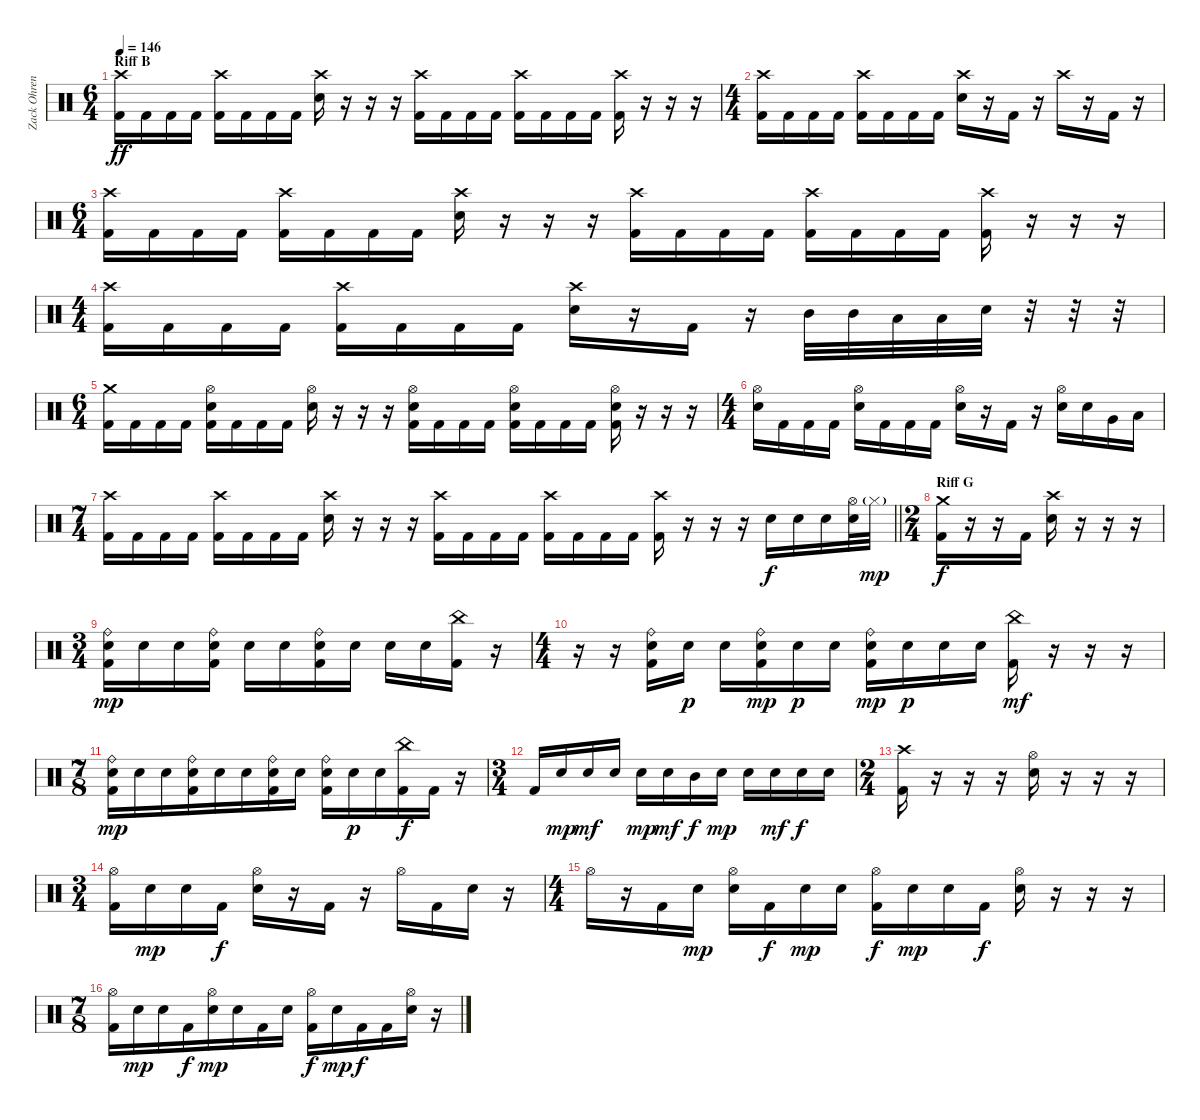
\track ("Zack Ohren" "Zack Ohren") {instrument percussion}
\staff {score}
\articulation defaults
\ts (6 4)
\section ("" "Riff B")
\tempo 146
\clef neutral
\ks c
("Crash high (hit)" "Kick (hit) 2").16{dy ff} "Kick (hit) 2".16 "Kick (hit) 2".16 "Kick (hit) 2".16 ("Crash high (hit)" "Kick (hit) 2").16 "Kick (hit) 2".16 "Kick (hit) 2".16 "Kick (hit) 2".16 ("Crash high (hit)" "Electric Snare (hit)").16 r.16 r.16 r.16 ("Crash high (hit)" "Kick (hit) 2").16 "Kick (hit) 2".16 "Kick (hit) 2".16 "Kick (hit) 2".16 ("Crash high (hit)" "Kick (hit) 2").16 "Kick (hit) 2".16 "Kick (hit) 2".16 "Kick (hit) 2".16 ("Crash high (hit)" "Kick (hit) 2").16 r.16 r.16 r.16 |
\ts (4 4)
("Crash high (hit)" "Kick (hit) 2").16 "Kick (hit) 2".16 "Kick (hit) 2".16 "Kick (hit) 2".16 ("Crash high (hit)" "Kick (hit) 2").16 "Kick (hit) 2".16 "Kick (hit) 2".16 "Kick (hit) 2".16 ("Crash high (hit)" "Electric Snare (hit)").16 r.16 "Kick (hit) 2".16 r.16 "Crash high (hit)".16 r.16 "Kick (hit) 2".16 r.16 |
\ts (6 4)
("Crash high (hit)" "Kick (hit) 2").16 "Kick (hit) 2".16 "Kick (hit) 2".16 "Kick (hit) 2".16 ("Crash high (hit)" "Kick (hit) 2").16 "Kick (hit) 2".16 "Kick (hit) 2".16 "Kick (hit) 2".16 ("Crash high (hit)" "Electric Snare (hit)").16 r.16 r.16 r.16 ("Crash high (hit)" "Kick (hit) 2").16 "Kick (hit) 2".16 "Kick (hit) 2".16 "Kick (hit) 2".16 ("Crash high (hit)" "Kick (hit) 2").16 "Kick (hit) 2".16 "Kick (hit) 2".16 "Kick (hit) 2".16 ("Crash high (hit)" "Kick (hit) 2").16 r.16 r.16 r.16 |
\ts (4 4)
("Crash high (hit)" "Kick (hit) 2").16 "Kick (hit) 2".16 "Kick (hit) 2".16 "Kick (hit) 2".16 ("Crash high (hit)" "Kick (hit) 2").16 "Kick (hit) 2".16 "Kick (hit) 2".16 "Kick (hit) 2".16 ("Crash high (hit)" "Electric Snare (hit)").16 r.16 "Kick (hit) 2".16 r.16 "Mid Tom (hit)".32 "Mid Tom (hit)".32 "Low Tom (hit)".32 "Low Tom (hit)".32 "Electric Snare (hit)".32 r.32 r.32 r.32 |
\ts (6 4)
("Crash medium (hit)" "Kick (hit) 2").16 "Kick (hit) 2".16 "Kick (hit) 2".16 "Kick (hit) 2".16 ("Hi-Hat (open)" "Electric Snare (hit)" "Kick (hit) 2").16 "Kick (hit) 2".16 "Kick (hit) 2".16 "Kick (hit) 2".16 ("Hi-Hat (open)" "Electric Snare (hit)").16 r.16 r.16 r.16 ("Hi-Hat (open)" "Electric Snare (hit)" "Kick (hit) 2").16 "Kick (hit) 2".16 "Kick (hit) 2".16 "Kick (hit) 2".16 ("Hi-Hat (open)" "Electric Snare (hit)" "Kick (hit) 2").16 "Kick (hit) 2".16 "Kick (hit) 2".16 "Kick (hit) 2".16 ("Hi-Hat (open)" "Electric Snare (hit)" "Kick (hit) 2").16 r.16 r.16 r.16 |
\ts (4 4)
("Hi-Hat (open)" "Electric Snare (hit)").16 "Kick (hit) 2".16 "Kick (hit) 2".16 "Kick (hit) 2".16 ("Hi-Hat (open)" "Electric Snare (hit)").16 "Kick (hit) 2".16 "Kick (hit) 2".16 "Kick (hit) 2".16 ("Hi-Hat (open)" "Electric Snare (hit)").16 r.16 "Kick (hit) 2".16 r.16 ("Hi-Hat (open)" "Electric Snare (hit)").16 "Electric Snare (hit)".16 "Very Low Tom (hit)".16 "Low Floor Tom (hit)".16 |
\ts (7 4)
\barLineRight lightlight
("Crash high (hit)" "Kick (hit) 2").16 "Kick (hit) 2".16 "Kick (hit) 2".16 "Kick (hit) 2".16 ("Crash high (hit)" "Kick (hit) 2").16 "Kick (hit) 2".16 "Kick (hit) 2".16 "Kick (hit) 2".16 ("Crash high (hit)" "Electric Snare (hit)").16 r.16 r.16 r.16 ("Crash high (hit)" "Kick (hit) 2").16 "Kick (hit) 2".16 "Kick (hit) 2".16 "Kick (hit) 2".16 ("Crash high (hit)" "Kick (hit) 2").16 "Kick (hit) 2".16 "Kick (hit) 2".16 "Kick (hit) 2".16 ("Crash high (hit)" "Kick (hit) 2").16 r.16 r.16 r.16 "Electric Snare (hit)".16{dy f} "Electric Snare (hit)".16 "Electric Snare (hit)".16 ("Hi-Hat (open)" "Electric Snare (hit)").32 "Hi-Hat (closed)"{g}.32{dy mp} |
\ts (2 4)
\section ("" "Riff G")
("Kick (hit) 2" "Crash medium (hit)").16{dy f} r.16 r.16 "Kick (hit) 2".16 ("Crash high (hit)" "Electric Snare (hit)").16 r.16 r.16 r.16 |
\ts (3 4)
("Kick (hit) 2" "Electric Snare (hit)" "Ride (bell)").16{dy mp} "Electric Snare (hit)".16 "Electric Snare (hit)".16 ("Kick (hit) 2" "Electric Snare (hit)" "Ride (bell)").16 "Electric Snare (hit)".16 "Electric Snare (hit)".16 ("Kick (hit) 2" "Electric Snare (hit)" "Ride (bell)").16 "Electric Snare (hit)".16 "Electric Snare (hit)".16 "Electric Snare (hit)".16 ("China (hit)" "Kick (hit) 2").16 r.16 |
\ts (4 4)
r.16 r.16 ("Kick (hit) 2" "Electric Snare (hit)" "Ride (bell)").16 "Electric Snare (hit)".16{dy p} "Electric Snare (hit)".16 ("Kick (hit) 2" "Electric Snare (hit)" "Ride (bell)").16{dy mp} "Electric Snare (hit)".16{dy p} "Electric Snare (hit)".16 ("Kick (hit) 2" "Electric Snare (hit)" "Ride (bell)").16{dy mp} "Electric Snare (hit)".16{dy p} "Electric Snare (hit)".16 "Electric Snare (hit)".16 ("China (hit)" "Kick (hit) 2").16{dy mf} r.16 r.16 r.16 |
\ts (7 8)
("Kick (hit) 2" "Electric Snare (hit)" "Ride (bell)").16{dy mp} "Electric Snare (hit)".16 "Electric Snare (hit)".16 ("Kick (hit) 2" "Electric Snare (hit)" "Ride (bell)").16 "Electric Snare (hit)".16 "Electric Snare (hit)".16 ("Kick (hit) 2" "Electric Snare (hit)" "Ride (bell)").16 "Electric Snare (hit)".16 ("Kick (hit) 2" "Electric Snare (hit)" "Ride (bell)").16 "Electric Snare (hit)".16{dy p} "Electric Snare (hit)".16 ("Kick (hit) 2" "China (hit)").16{dy f} "Kick (hit) 2".16 r.16 |
\ts (3 4)
"Kick (hit) 2".16 "Electric Snare (hit)".16{dy mp} "Electric Snare (hit)".16{dy mf} "Electric Snare (hit)".16 "Electric Snare (hit)".16{dy mp} "Electric Snare (hit)".16{dy mf} "Mid Tom (hit)".16{dy f} "Electric Snare (hit)".16{dy mp} "Electric Snare (hit)".16 "Electric Snare (hit)".16{dy mf} "Electric Snare (hit)".16{dy f} "Electric Snare (hit)".16 |
\ts (2 4)
("Kick (hit) 2" "Crash high (hit)").16 r.16 r.16 r.16 ("Electric Snare (hit)" "Hi-Hat (open)").16 r.16 r.16 r.16 |
\ts (3 4)
("Kick (hit) 2" "Hi-Hat (open)").16 "Electric Snare (hit)".16{dy mp} "Electric Snare (hit)".16 "Kick (hit) 2".16{dy f} ("Electric Snare (hit)" "Hi-Hat (open)").16 r.16 "Kick (hit) 2".16 r.16 "Hi-Hat (open)".16 "Kick (hit) 2".16 "Electric Snare (hit)".16 r.16 |
\ts (4 4)
"Hi-Hat (open)".16 r.16 "Kick (hit) 2".16 "Electric Snare (hit)".16{dy mp} ("Electric Snare (hit)" "Hi-Hat (open)").16 "Kick (hit) 2".16{dy f} "Electric Snare (hit)".16{dy mp} "Electric Snare (hit)".16 ("Kick (hit) 2" "Hi-Hat (open)").16{dy f} "Electric Snare (hit)".16{dy mp} "Electric Snare (hit)".16 "Kick (hit) 2".16{dy f} ("Electric Snare (hit)" "Hi-Hat (open)").16 r.16 r.16 r.16 |
\ts (7 8)
("Kick (hit) 2" "Hi-Hat (open)").16 "Electric Snare (hit)".16{dy mp} "Electric Snare (hit)".16 "Kick (hit) 2".16{dy f} ("Electric Snare (hit)" "Hi-Hat (open)").16{dy mp} "Electric Snare (hit)".16 "Kick (hit) 2".16 "Electric Snare (hit)".16 ("Kick (hit) 2" "Hi-Hat (open)").16{dy f} "Electric Snare (hit)".16{dy mp} "Kick (hit) 2".16{dy f} "Kick (hit) 2".16 ("Electric Snare (hit)" "Hi-Hat (open)").16 r.16
